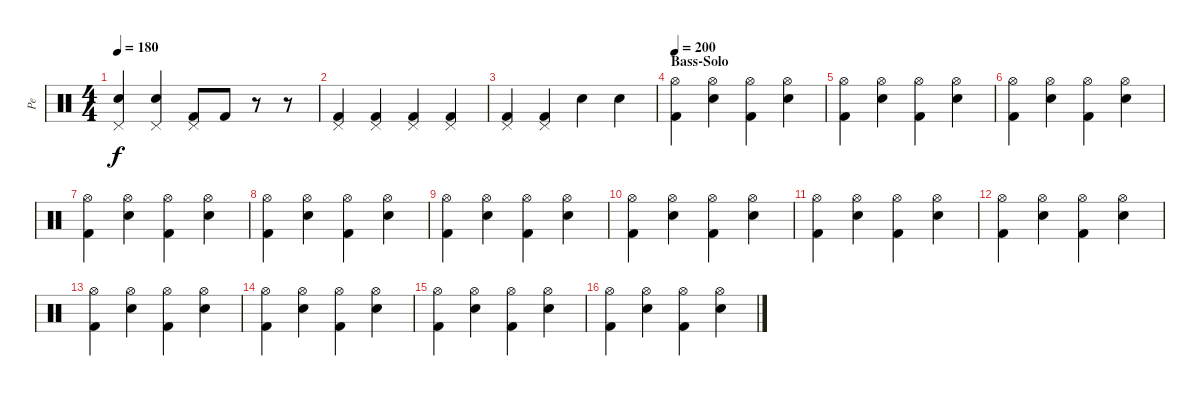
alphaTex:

\track ("Pe" "Pe") {instrument percussion}
\staff {score}
\articulation defaults
\ts (4 4)
\tempo 180
\clef neutral
\ks c
("Pedal Hi-Hat (hit)" "Electric Snare (hit)").4{dy f} ("Pedal Hi-Hat (hit)" "Electric Snare (hit)").4 ("Pedal Hi-Hat (hit)" "Kick (hit) 2").8 "Kick (hit) 2".8 r.8 r.8 |
("Pedal Hi-Hat (hit)" "Kick (hit) 2").4 ("Pedal Hi-Hat (hit)" "Kick (hit) 2").4 ("Pedal Hi-Hat (hit)" "Kick (hit) 2").4 ("Pedal Hi-Hat (hit)" "Kick (hit) 2").4 |
("Pedal Hi-Hat (hit)" "Kick (hit) 2").4 ("Pedal Hi-Hat (hit)" "Kick (hit) 2").4 "Electric Snare (hit)".4 "Electric Snare (hit)".4 |
\section ("" "Bass-Solo")
\tempo 200
("Hi-Hat (open)" "Kick (hit) 2").4 ("Hi-Hat (open)" "Electric Snare (hit)").4 ("Hi-Hat (open)" "Kick (hit) 2").4 ("Hi-Hat (open)" "Electric Snare (hit)").4 |
("Hi-Hat (open)" "Kick (hit) 2").4 ("Hi-Hat (open)" "Electric Snare (hit)").4 ("Hi-Hat (open)" "Kick (hit) 2").4 ("Hi-Hat (open)" "Electric Snare (hit)").4 |
("Hi-Hat (open)" "Kick (hit) 2").4 ("Hi-Hat (open)" "Electric Snare (hit)").4 ("Hi-Hat (open)" "Kick (hit) 2").4 ("Hi-Hat (open)" "Electric Snare (hit)").4 |
("Hi-Hat (open)" "Kick (hit) 2").4 ("Hi-Hat (open)" "Electric Snare (hit)").4 ("Hi-Hat (open)" "Kick (hit) 2").4 ("Hi-Hat (open)" "Electric Snare (hit)").4 |
("Hi-Hat (open)" "Kick (hit) 2").4 ("Hi-Hat (open)" "Electric Snare (hit)").4 ("Hi-Hat (open)" "Kick (hit) 2").4 ("Hi-Hat (open)" "Electric Snare (hit)").4 |
("Hi-Hat (open)" "Kick (hit) 2").4 ("Hi-Hat (open)" "Electric Snare (hit)").4 ("Hi-Hat (open)" "Kick (hit) 2").4 ("Hi-Hat (open)" "Electric Snare (hit)").4 |
("Hi-Hat (open)" "Kick (hit) 2").4 ("Hi-Hat (open)" "Electric Snare (hit)").4 ("Hi-Hat (open)" "Kick (hit) 2").4 ("Hi-Hat (open)" "Electric Snare (hit)").4 |
("Hi-Hat (open)" "Kick (hit) 2").4 ("Hi-Hat (open)" "Electric Snare (hit)").4 ("Hi-Hat (open)" "Kick (hit) 2").4 ("Hi-Hat (open)" "Electric Snare (hit)").4 |
("Hi-Hat (open)" "Kick (hit) 2").4 ("Hi-Hat (open)" "Electric Snare (hit)").4 ("Hi-Hat (open)" "Kick (hit) 2").4 ("Hi-Hat (open)" "Electric Snare (hit)").4 |
("Hi-Hat (open)" "Kick (hit) 2").4 ("Hi-Hat (open)" "Electric Snare (hit)").4 ("Hi-Hat (open)" "Kick (hit) 2").4 ("Hi-Hat (open)" "Electric Snare (hit)").4 |
("Hi-Hat (open)" "Kick (hit) 2").4 ("Hi-Hat (open)" "Electric Snare (hit)").4 ("Hi-Hat (open)" "Kick (hit) 2").4 ("Hi-Hat (open)" "Electric Snare (hit)").4 |
("Hi-Hat (open)" "Kick (hit) 2").4 ("Hi-Hat (open)" "Electric Snare (hit)").4 ("Hi-Hat (open)" "Kick (hit) 2").4 ("Hi-Hat (open)" "Electric Snare (hit)").4 |
("Hi-Hat (open)" "Kick (hit) 2").4 ("Hi-Hat (open)" "Electric Snare (hit)").4 ("Hi-Hat (open)" "Kick (hit) 2").4 ("Hi-Hat (open)" "Electric Snare (hit)").4
